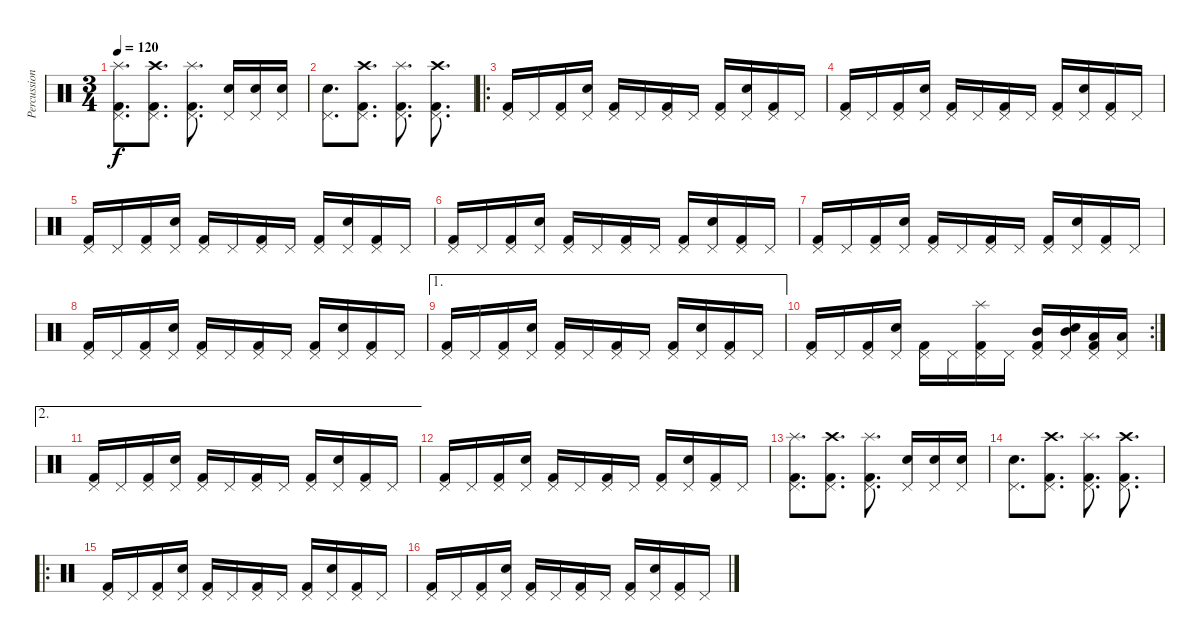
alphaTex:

\track ("Percussion" "Percussion") {instrument percussion}
\staff {score}
\articulation defaults
\ts (3 4)
\tempo 120
\clef neutral
\ks c
("Kick (hit) 2" "Pedal Hi-Hat (hit)" "Splash (hit)").8{d dy f} ("Kick (hit) 2" "Pedal Hi-Hat (hit)" "Crash high (hit)").8{d} ("Kick (hit) 2" "Pedal Hi-Hat (hit)" "Splash (hit)").8{d} ("Pedal Hi-Hat (hit)" "Electric Snare (hit)").16 ("Pedal Hi-Hat (hit)" "Electric Snare (hit)").16 ("Pedal Hi-Hat (hit)" "Electric Snare (hit)").16 |
("Pedal Hi-Hat (hit)" "Electric Snare (hit)").8{d} ("Kick (hit) 2" "Pedal Hi-Hat (hit)" "Crash high (hit)").8{d} ("Kick (hit) 2" "Pedal Hi-Hat (hit)" "Splash (hit)").8{d} ("Kick (hit) 2" "Pedal Hi-Hat (hit)" "Crash high (hit)").8{d} |
\ro
("Kick (hit) 2" "Pedal Hi-Hat (hit)").16 "Pedal Hi-Hat (hit)".16 ("Kick (hit) 2" "Pedal Hi-Hat (hit)").16 ("Pedal Hi-Hat (hit)" "Electric Snare (hit)").16 ("Kick (hit) 2" "Pedal Hi-Hat (hit)").16 "Pedal Hi-Hat (hit)".16 ("Kick (hit) 2" "Pedal Hi-Hat (hit)").16 "Pedal Hi-Hat (hit)".16 ("Kick (hit) 2" "Pedal Hi-Hat (hit)").16 ("Pedal Hi-Hat (hit)" "Electric Snare (hit)").16 ("Kick (hit) 2" "Pedal Hi-Hat (hit)").16 "Pedal Hi-Hat (hit)".16 |
("Kick (hit) 2" "Pedal Hi-Hat (hit)").16 "Pedal Hi-Hat (hit)".16 ("Kick (hit) 2" "Pedal Hi-Hat (hit)").16 ("Pedal Hi-Hat (hit)" "Electric Snare (hit)").16 ("Kick (hit) 2" "Pedal Hi-Hat (hit)").16 "Pedal Hi-Hat (hit)".16 ("Kick (hit) 2" "Pedal Hi-Hat (hit)").16 "Pedal Hi-Hat (hit)".16 ("Kick (hit) 2" "Pedal Hi-Hat (hit)").16 ("Pedal Hi-Hat (hit)" "Electric Snare (hit)").16 ("Kick (hit) 2" "Pedal Hi-Hat (hit)").16 "Pedal Hi-Hat (hit)".16 |
("Kick (hit) 2" "Pedal Hi-Hat (hit)").16 "Pedal Hi-Hat (hit)".16 ("Kick (hit) 2" "Pedal Hi-Hat (hit)").16 ("Pedal Hi-Hat (hit)" "Electric Snare (hit)").16 ("Kick (hit) 2" "Pedal Hi-Hat (hit)").16 "Pedal Hi-Hat (hit)".16 ("Kick (hit) 2" "Pedal Hi-Hat (hit)").16 "Pedal Hi-Hat (hit)".16 ("Kick (hit) 2" "Pedal Hi-Hat (hit)").16 ("Pedal Hi-Hat (hit)" "Electric Snare (hit)").16 ("Kick (hit) 2" "Pedal Hi-Hat (hit)").16 "Pedal Hi-Hat (hit)".16 |
("Kick (hit) 2" "Pedal Hi-Hat (hit)").16 "Pedal Hi-Hat (hit)".16 ("Kick (hit) 2" "Pedal Hi-Hat (hit)").16 ("Pedal Hi-Hat (hit)" "Electric Snare (hit)").16 ("Kick (hit) 2" "Pedal Hi-Hat (hit)").16 "Pedal Hi-Hat (hit)".16 ("Kick (hit) 2" "Pedal Hi-Hat (hit)").16 "Pedal Hi-Hat (hit)".16 ("Kick (hit) 2" "Pedal Hi-Hat (hit)").16 ("Pedal Hi-Hat (hit)" "Electric Snare (hit)").16 ("Kick (hit) 2" "Pedal Hi-Hat (hit)").16 "Pedal Hi-Hat (hit)".16 |
("Kick (hit) 2" "Pedal Hi-Hat (hit)").16 "Pedal Hi-Hat (hit)".16 ("Kick (hit) 2" "Pedal Hi-Hat (hit)").16 ("Pedal Hi-Hat (hit)" "Electric Snare (hit)").16 ("Kick (hit) 2" "Pedal Hi-Hat (hit)").16 "Pedal Hi-Hat (hit)".16 ("Kick (hit) 2" "Pedal Hi-Hat (hit)").16 "Pedal Hi-Hat (hit)".16 ("Kick (hit) 2" "Pedal Hi-Hat (hit)").16 ("Pedal Hi-Hat (hit)" "Electric Snare (hit)").16 ("Kick (hit) 2" "Pedal Hi-Hat (hit)").16 "Pedal Hi-Hat (hit)".16 |
("Kick (hit) 2" "Pedal Hi-Hat (hit)").16 "Pedal Hi-Hat (hit)".16 ("Kick (hit) 2" "Pedal Hi-Hat (hit)").16 ("Pedal Hi-Hat (hit)" "Electric Snare (hit)").16 ("Kick (hit) 2" "Pedal Hi-Hat (hit)").16 "Pedal Hi-Hat (hit)".16 ("Kick (hit) 2" "Pedal Hi-Hat (hit)").16 "Pedal Hi-Hat (hit)".16 ("Kick (hit) 2" "Pedal Hi-Hat (hit)").16 ("Pedal Hi-Hat (hit)" "Electric Snare (hit)").16 ("Kick (hit) 2" "Pedal Hi-Hat (hit)").16 "Pedal Hi-Hat (hit)".16 |
\ae 1
("Kick (hit) 2" "Pedal Hi-Hat (hit)").16 "Pedal Hi-Hat (hit)".16 ("Kick (hit) 2" "Pedal Hi-Hat (hit)").16 ("Pedal Hi-Hat (hit)" "Electric Snare (hit)").16 ("Kick (hit) 2" "Pedal Hi-Hat (hit)").16 "Pedal Hi-Hat (hit)".16 ("Kick (hit) 2" "Pedal Hi-Hat (hit)").16 "Pedal Hi-Hat (hit)".16 ("Kick (hit) 2" "Pedal Hi-Hat (hit)").16 ("Pedal Hi-Hat (hit)" "Electric Snare (hit)").16 ("Kick (hit) 2" "Pedal Hi-Hat (hit)").16 "Pedal Hi-Hat (hit)".16 |
\rc 2
("Kick (hit) 2" "Pedal Hi-Hat (hit)").16 "Pedal Hi-Hat (hit)".16 ("Kick (hit) 2" "Pedal Hi-Hat (hit)").16 ("Pedal Hi-Hat (hit)" "Electric Snare (hit)").16 ("Kick (hit) 2" "Pedal Hi-Hat (hit)").16 "Pedal Hi-Hat (hit)".16 ("Kick (hit) 2" "Pedal Hi-Hat (hit)" "Splash (hit)").16 "Pedal Hi-Hat (hit)".16 ("Kick (hit) 2" "Pedal Hi-Hat (hit)" "Mid Tom (hit)").16 ("Pedal Hi-Hat (hit)" "Electric Snare (hit)" "Mid Tom (hit)").16 ("Kick (hit) 2" "Pedal Hi-Hat (hit)" "Low Tom (hit)").16 ("Pedal Hi-Hat (hit)" "Low Tom (hit)").16 |
\ae 2
("Kick (hit) 2" "Pedal Hi-Hat (hit)").16 "Pedal Hi-Hat (hit)".16 ("Kick (hit) 2" "Pedal Hi-Hat (hit)").16 ("Pedal Hi-Hat (hit)" "Electric Snare (hit)").16 ("Kick (hit) 2" "Pedal Hi-Hat (hit)").16 "Pedal Hi-Hat (hit)".16 ("Kick (hit) 2" "Pedal Hi-Hat (hit)").16 "Pedal Hi-Hat (hit)".16 ("Kick (hit) 2" "Pedal Hi-Hat (hit)").16 ("Pedal Hi-Hat (hit)" "Electric Snare (hit)").16 ("Kick (hit) 2" "Pedal Hi-Hat (hit)").16 "Pedal Hi-Hat (hit)".16 |
("Kick (hit) 2" "Pedal Hi-Hat (hit)").16 "Pedal Hi-Hat (hit)".16 ("Kick (hit) 2" "Pedal Hi-Hat (hit)").16 ("Pedal Hi-Hat (hit)" "Electric Snare (hit)").16 ("Kick (hit) 2" "Pedal Hi-Hat (hit)").16 "Pedal Hi-Hat (hit)".16 ("Kick (hit) 2" "Pedal Hi-Hat (hit)").16 "Pedal Hi-Hat (hit)".16 ("Kick (hit) 2" "Pedal Hi-Hat (hit)").16 ("Pedal Hi-Hat (hit)" "Electric Snare (hit)").16 ("Kick (hit) 2" "Pedal Hi-Hat (hit)").16 "Pedal Hi-Hat (hit)".16 |
("Kick (hit) 2" "Pedal Hi-Hat (hit)" "Splash (hit)").8{d} ("Kick (hit) 2" "Pedal Hi-Hat (hit)" "Crash high (hit)").8{d} ("Kick (hit) 2" "Pedal Hi-Hat (hit)" "Splash (hit)").8{d} ("Pedal Hi-Hat (hit)" "Electric Snare (hit)").16 ("Pedal Hi-Hat (hit)" "Electric Snare (hit)").16 ("Pedal Hi-Hat (hit)" "Electric Snare (hit)").16 |
("Pedal Hi-Hat (hit)" "Electric Snare (hit)").8{d} ("Kick (hit) 2" "Pedal Hi-Hat (hit)" "Crash high (hit)").8{d} ("Kick (hit) 2" "Pedal Hi-Hat (hit)" "Splash (hit)").8{d} ("Kick (hit) 2" "Pedal Hi-Hat (hit)" "Crash high (hit)").8{d} |
\ro
("Kick (hit) 2" "Pedal Hi-Hat (hit)").16 "Pedal Hi-Hat (hit)".16 ("Kick (hit) 2" "Pedal Hi-Hat (hit)").16 ("Pedal Hi-Hat (hit)" "Electric Snare (hit)").16 ("Kick (hit) 2" "Pedal Hi-Hat (hit)").16 "Pedal Hi-Hat (hit)".16 ("Kick (hit) 2" "Pedal Hi-Hat (hit)").16 "Pedal Hi-Hat (hit)".16 ("Kick (hit) 2" "Pedal Hi-Hat (hit)").16 ("Pedal Hi-Hat (hit)" "Electric Snare (hit)").16 ("Kick (hit) 2" "Pedal Hi-Hat (hit)").16 "Pedal Hi-Hat (hit)".16 |
("Kick (hit) 2" "Pedal Hi-Hat (hit)").16 "Pedal Hi-Hat (hit)".16 ("Kick (hit) 2" "Pedal Hi-Hat (hit)").16 ("Pedal Hi-Hat (hit)" "Electric Snare (hit)").16 ("Kick (hit) 2" "Pedal Hi-Hat (hit)").16 "Pedal Hi-Hat (hit)".16 ("Kick (hit) 2" "Pedal Hi-Hat (hit)").16 "Pedal Hi-Hat (hit)".16 ("Kick (hit) 2" "Pedal Hi-Hat (hit)").16 ("Pedal Hi-Hat (hit)" "Electric Snare (hit)").16 ("Kick (hit) 2" "Pedal Hi-Hat (hit)").16 "Pedal Hi-Hat (hit)".16
